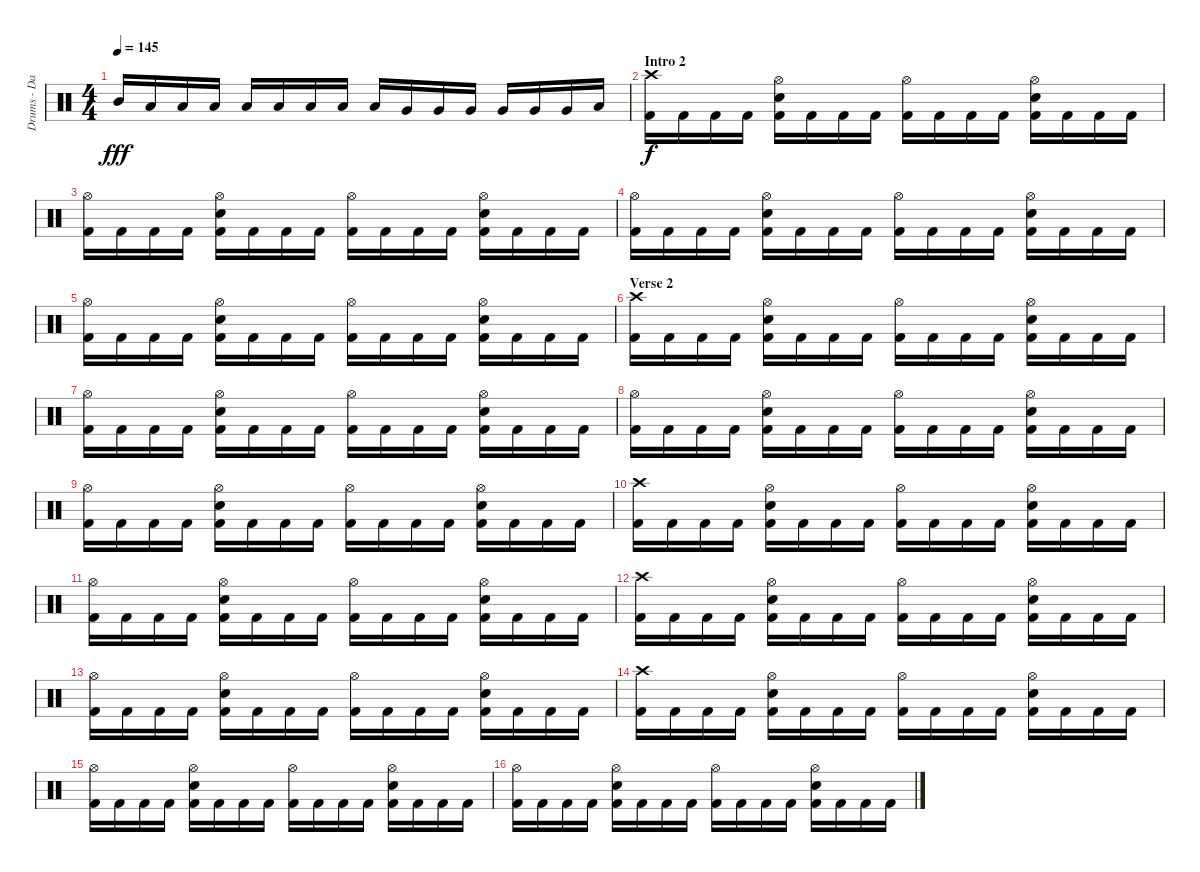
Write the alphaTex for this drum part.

\track ("Drums - Daniel Zimmermann" "Drums - Da") {instrument percussion}
\staff {score}
\articulation defaults
\ts (4 4)
\tempo 145
\clef neutral
\ks c "Mid Tom (hit)".16{dy fff} "Low Tom (hit)".16 "Low Tom (hit)".16 "Low Tom (hit)".16 "Low Tom (hit)".16 "Low Tom (hit)".16 "Low Tom (hit)".16 "Low Tom (hit)".16 "Low Tom (hit)".16 "Very Low Tom (hit)".16 "Very Low Tom (hit)".16 "Very Low Tom (hit)".16 "Very Low Tom (hit)".16 "Very Low Tom (hit)".16 "Very Low Tom (hit)".16 "Low Floor Tom (hit)".16
|
\section ("" "Intro 2")
("Kick (hit) 2" "Crash high (hit)").16{dy f} "Kick (hit) 2".16 "Kick (hit) 2".16 "Kick (hit) 2".16 ("Kick (hit) 2" "Electric Snare (hit)" "Hi-Hat (open)").16 "Kick (hit) 2".16 "Kick (hit) 2".16 "Kick (hit) 2".16 ("Kick (hit) 2" "Hi-Hat (open)").16 "Kick (hit) 2".16 "Kick (hit) 2".16 "Kick (hit) 2".16 ("Kick (hit) 2" "Electric Snare (hit)" "Hi-Hat (open)").16 "Kick (hit) 2".16 "Kick (hit) 2".16 "Kick (hit) 2".16 |
("Kick (hit) 2" "Hi-Hat (open)").16 "Kick (hit) 2".16 "Kick (hit) 2".16 "Kick (hit) 2".16 ("Kick (hit) 2" "Electric Snare (hit)" "Hi-Hat (open)").16 "Kick (hit) 2".16 "Kick (hit) 2".16 "Kick (hit) 2".16 ("Kick (hit) 2" "Hi-Hat (open)").16 "Kick (hit) 2".16 "Kick (hit) 2".16 "Kick (hit) 2".16 ("Kick (hit) 2" "Electric Snare (hit)" "Hi-Hat (open)").16 "Kick (hit) 2".16 "Kick (hit) 2".16 "Kick (hit) 2".16 |
("Kick (hit) 2" "Hi-Hat (open)").16 "Kick (hit) 2".16 "Kick (hit) 2".16 "Kick (hit) 2".16 ("Kick (hit) 2" "Electric Snare (hit)" "Hi-Hat (open)").16 "Kick (hit) 2".16 "Kick (hit) 2".16 "Kick (hit) 2".16 ("Kick (hit) 2" "Hi-Hat (open)").16 "Kick (hit) 2".16 "Kick (hit) 2".16 "Kick (hit) 2".16 ("Kick (hit) 2" "Electric Snare (hit)" "Hi-Hat (open)").16 "Kick (hit) 2".16 "Kick (hit) 2".16 "Kick (hit) 2".16 |
("Kick (hit) 2" "Hi-Hat (open)").16 "Kick (hit) 2".16 "Kick (hit) 2".16 "Kick (hit) 2".16 ("Kick (hit) 2" "Electric Snare (hit)" "Hi-Hat (open)").16 "Kick (hit) 2".16 "Kick (hit) 2".16 "Kick (hit) 2".16 ("Kick (hit) 2" "Hi-Hat (open)").16 "Kick (hit) 2".16 "Kick (hit) 2".16 "Kick (hit) 2".16 ("Kick (hit) 2" "Electric Snare (hit)" "Hi-Hat (open)").16 "Kick (hit) 2".16 "Kick (hit) 2".16 "Kick (hit) 2".16 |
\section ("" "Verse 2")
("Kick (hit) 2" "Crash high (hit)").16 "Kick (hit) 2".16 "Kick (hit) 2".16 "Kick (hit) 2".16 ("Kick (hit) 2" "Electric Snare (hit)" "Hi-Hat (open)").16 "Kick (hit) 2".16 "Kick (hit) 2".16 "Kick (hit) 2".16 ("Kick (hit) 2" "Hi-Hat (open)").16 "Kick (hit) 2".16 "Kick (hit) 2".16 "Kick (hit) 2".16 ("Kick (hit) 2" "Electric Snare (hit)" "Hi-Hat (open)").16 "Kick (hit) 2".16 "Kick (hit) 2".16 "Kick (hit) 2".16 |
("Kick (hit) 2" "Hi-Hat (open)").16 "Kick (hit) 2".16 "Kick (hit) 2".16 "Kick (hit) 2".16 ("Kick (hit) 2" "Electric Snare (hit)" "Hi-Hat (open)").16 "Kick (hit) 2".16 "Kick (hit) 2".16 "Kick (hit) 2".16 ("Kick (hit) 2" "Hi-Hat (open)").16 "Kick (hit) 2".16 "Kick (hit) 2".16 "Kick (hit) 2".16 ("Kick (hit) 2" "Electric Snare (hit)" "Hi-Hat (open)").16 "Kick (hit) 2".16 "Kick (hit) 2".16 "Kick (hit) 2".16 |
("Kick (hit) 2" "Hi-Hat (open)").16 "Kick (hit) 2".16 "Kick (hit) 2".16 "Kick (hit) 2".16 ("Kick (hit) 2" "Electric Snare (hit)" "Hi-Hat (open)").16 "Kick (hit) 2".16 "Kick (hit) 2".16 "Kick (hit) 2".16 ("Kick (hit) 2" "Hi-Hat (open)").16 "Kick (hit) 2".16 "Kick (hit) 2".16 "Kick (hit) 2".16 ("Kick (hit) 2" "Electric Snare (hit)" "Hi-Hat (open)").16 "Kick (hit) 2".16 "Kick (hit) 2".16 "Kick (hit) 2".16 |
("Kick (hit) 2" "Hi-Hat (open)").16 "Kick (hit) 2".16 "Kick (hit) 2".16 "Kick (hit) 2".16 ("Kick (hit) 2" "Electric Snare (hit)" "Hi-Hat (open)").16 "Kick (hit) 2".16 "Kick (hit) 2".16 "Kick (hit) 2".16 ("Kick (hit) 2" "Hi-Hat (open)").16 "Kick (hit) 2".16 "Kick (hit) 2".16 "Kick (hit) 2".16 ("Kick (hit) 2" "Electric Snare (hit)" "Hi-Hat (open)").16 "Kick (hit) 2".16 "Kick (hit) 2".16 "Kick (hit) 2".16 |
("Kick (hit) 2" "Crash high (hit)").16 "Kick (hit) 2".16 "Kick (hit) 2".16 "Kick (hit) 2".16 ("Kick (hit) 2" "Electric Snare (hit)" "Hi-Hat (open)").16 "Kick (hit) 2".16 "Kick (hit) 2".16 "Kick (hit) 2".16 ("Kick (hit) 2" "Hi-Hat (open)").16 "Kick (hit) 2".16 "Kick (hit) 2".16 "Kick (hit) 2".16 ("Kick (hit) 2" "Electric Snare (hit)" "Hi-Hat (open)").16 "Kick (hit) 2".16 "Kick (hit) 2".16 "Kick (hit) 2".16 |
("Kick (hit) 2" "Hi-Hat (open)").16 "Kick (hit) 2".16 "Kick (hit) 2".16 "Kick (hit) 2".16 ("Kick (hit) 2" "Electric Snare (hit)" "Hi-Hat (open)").16 "Kick (hit) 2".16 "Kick (hit) 2".16 "Kick (hit) 2".16 ("Kick (hit) 2" "Hi-Hat (open)").16 "Kick (hit) 2".16 "Kick (hit) 2".16 "Kick (hit) 2".16 ("Kick (hit) 2" "Electric Snare (hit)" "Hi-Hat (open)").16 "Kick (hit) 2".16 "Kick (hit) 2".16 "Kick (hit) 2".16 |
("Kick (hit) 2" "Crash high (hit)").16 "Kick (hit) 2".16 "Kick (hit) 2".16 "Kick (hit) 2".16 ("Kick (hit) 2" "Electric Snare (hit)" "Hi-Hat (open)").16 "Kick (hit) 2".16 "Kick (hit) 2".16 "Kick (hit) 2".16 ("Kick (hit) 2" "Hi-Hat (open)").16 "Kick (hit) 2".16 "Kick (hit) 2".16 "Kick (hit) 2".16 ("Kick (hit) 2" "Electric Snare (hit)" "Hi-Hat (open)").16 "Kick (hit) 2".16 "Kick (hit) 2".16 "Kick (hit) 2".16 |
("Kick (hit) 2" "Hi-Hat (open)").16 "Kick (hit) 2".16 "Kick (hit) 2".16 "Kick (hit) 2".16 ("Kick (hit) 2" "Electric Snare (hit)" "Hi-Hat (open)").16 "Kick (hit) 2".16 "Kick (hit) 2".16 "Kick (hit) 2".16 ("Kick (hit) 2" "Hi-Hat (open)").16 "Kick (hit) 2".16 "Kick (hit) 2".16 "Kick (hit) 2".16 ("Kick (hit) 2" "Electric Snare (hit)" "Hi-Hat (open)").16 "Kick (hit) 2".16 "Kick (hit) 2".16 "Kick (hit) 2".16 |
("Kick (hit) 2" "Crash high (hit)").16 "Kick (hit) 2".16 "Kick (hit) 2".16 "Kick (hit) 2".16 ("Kick (hit) 2" "Electric Snare (hit)" "Hi-Hat (open)").16 "Kick (hit) 2".16 "Kick (hit) 2".16 "Kick (hit) 2".16 ("Kick (hit) 2" "Hi-Hat (open)").16 "Kick (hit) 2".16 "Kick (hit) 2".16 "Kick (hit) 2".16 ("Kick (hit) 2" "Electric Snare (hit)" "Hi-Hat (open)").16 "Kick (hit) 2".16 "Kick (hit) 2".16 "Kick (hit) 2".16 |
("Kick (hit) 2" "Hi-Hat (open)").16 "Kick (hit) 2".16 "Kick (hit) 2".16 "Kick (hit) 2".16 ("Kick (hit) 2" "Electric Snare (hit)" "Hi-Hat (open)").16 "Kick (hit) 2".16 "Kick (hit) 2".16 "Kick (hit) 2".16 ("Kick (hit) 2" "Hi-Hat (open)").16 "Kick (hit) 2".16 "Kick (hit) 2".16 "Kick (hit) 2".16 ("Kick (hit) 2" "Electric Snare (hit)" "Hi-Hat (open)").16 "Kick (hit) 2".16 "Kick (hit) 2".16 "Kick (hit) 2".16 |
("Kick (hit) 2" "Hi-Hat (open)").16 "Kick (hit) 2".16 "Kick (hit) 2".16 "Kick (hit) 2".16 ("Kick (hit) 2" "Electric Snare (hit)" "Hi-Hat (open)").16 "Kick (hit) 2".16 "Kick (hit) 2".16 "Kick (hit) 2".16 ("Kick (hit) 2" "Hi-Hat (open)").16 "Kick (hit) 2".16 "Kick (hit) 2".16 "Kick (hit) 2".16 ("Kick (hit) 2" "Electric Snare (hit)" "Hi-Hat (open)").16 "Kick (hit) 2".16 "Kick (hit) 2".16 "Kick (hit) 2".16
